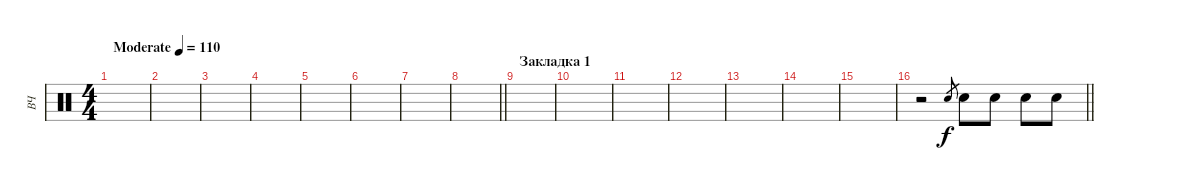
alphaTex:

\track ("ВЧ" "ВЧ") {instrument percussion}
\staff {score}
\articulation defaults
\ts (4 4)
\tempo (110 "Moderate")
\clef neutral
\ks c
|
|
|
|
|
|
|
\barLineRight lightlight
|
\section ("" "Закладка 1")
|
|
|
|
|
|
|
\barLineRight lightlight
r.2 "Snare (hit) 2".8{gr} "Snare (hit) 2".8 "Snare (hit) 2".8 "Snare (hit) 2".8 "Snare (hit) 2".8
